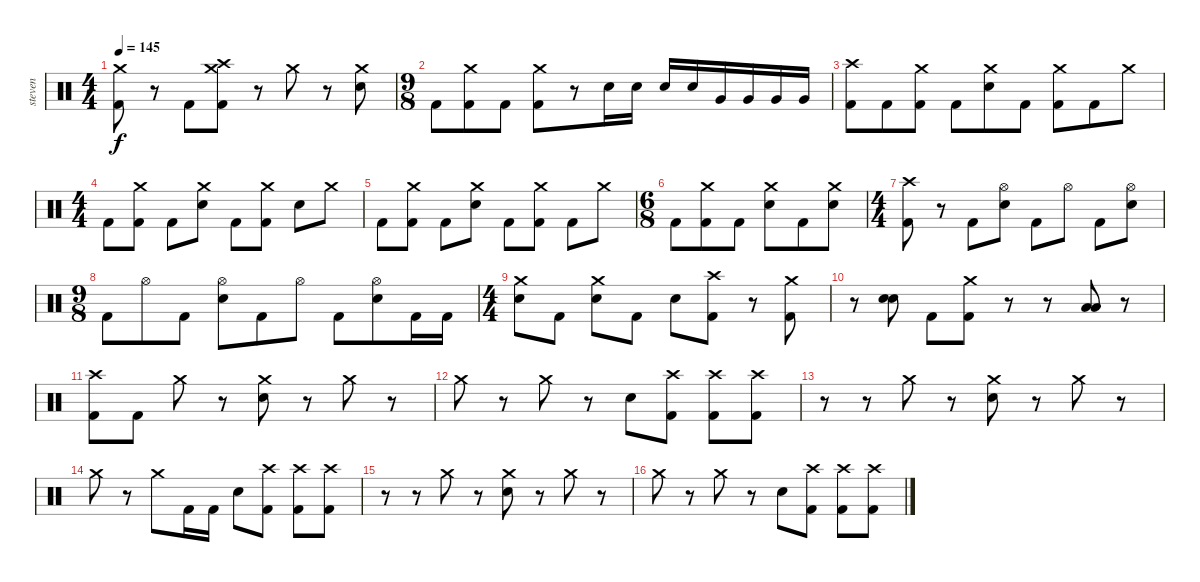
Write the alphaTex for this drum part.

\track ("steven" "steven") {instrument percussion}
\staff {score}
\articulation defaults
\ts (4 4)
\tempo 145
\clef neutral
\ks c
("Crash medium (hit)" "Kick (hit) 2").8{dy f} r.8 "Kick (hit) 2".8 ("Crash medium (hit)" "Crash high (hit)" "Kick (hit) 2").8 r.8 "Crash medium (hit)".8 r.8 ("Crash medium (hit)" "Electric Snare (hit)").8 |
\ts (9 8)
"Kick (hit) 2".8 ("Crash medium (hit)" "Kick (hit) 2").8 "Kick (hit) 2".8 ("Crash medium (hit)" "Kick (hit) 2").8 r.8 "Electric Snare (hit)".16 "Electric Snare (hit)".16 "Electric Snare (hit)".16 "Electric Snare (hit)".16 "Very Low Tom (hit)".16 "Very Low Tom (hit)".16 "Very Low Tom (hit)".16 "Very Low Tom (hit)".16 |
("Crash high (hit)" "Kick (hit) 2").8 "Kick (hit) 2".8 ("Crash medium (hit)" "Kick (hit) 2").8 "Kick (hit) 2".8 ("Crash medium (hit)" "Electric Snare (hit)").8 "Kick (hit) 2".8 ("Crash medium (hit)" "Kick (hit) 2").8 "Kick (hit) 2".8 "Crash medium (hit)".8 |
\ts (4 4)
"Kick (hit) 2".8 ("Crash medium (hit)" "Kick (hit) 2").8 "Kick (hit) 2".8 ("Crash medium (hit)" "Electric Snare (hit)").8 "Kick (hit) 2".8 ("Crash medium (hit)" "Kick (hit) 2").8 "Electric Snare (hit)".8 "Crash medium (hit)".8 |
"Kick (hit) 2".8 ("Crash medium (hit)" "Kick (hit) 2").8 "Kick (hit) 2".8 ("Crash medium (hit)" "Electric Snare (hit)").8 "Kick (hit) 2".8 ("Crash medium (hit)" "Kick (hit) 2").8 "Kick (hit) 2".8 "Crash medium (hit)".8 |
\ts (6 8)
"Kick (hit) 2".8 ("Crash medium (hit)" "Kick (hit) 2").8 "Kick (hit) 2".8 ("Crash medium (hit)" "Electric Snare (hit)").8 "Kick (hit) 2".8 ("Crash medium (hit)" "Electric Snare (hit)").8 |
\ts (4 4)
("Crash high (hit)" "Kick (hit) 2").8 r.8 "Kick (hit) 2".8 ("Hi-Hat (open)" "Electric Snare (hit)").8 "Kick (hit) 2".8 "Hi-Hat (open)".8 "Kick (hit) 2".8 ("Hi-Hat (open)" "Electric Snare (hit)").8 |
\ts (9 8)
"Kick (hit) 2".8 "Hi-Hat (open)".8 "Kick (hit) 2".8 ("Hi-Hat (open)" "Electric Snare (hit)").8 "Kick (hit) 2".8 "Hi-Hat (open)".8 "Kick (hit) 2".8 ("Hi-Hat (open)" "Electric Snare (hit)").8 "Kick (hit) 2".16 "Kick (hit) 2".16 |
\ts (4 4)
("Crash medium (hit)" "Electric Snare (hit)").8 "Kick (hit) 2".8 ("Crash medium (hit)" "Electric Snare (hit)").8 "Kick (hit) 2".8 "Electric Snare (hit)".8 ("Crash high (hit)" "Kick (hit) 2").8 r.8 ("Crash medium (hit)" "Kick (hit) 2").8 |
r.8 ("Electric Snare (hit)" "Electric Snare (hit)").8 "Kick (hit) 2".8 ("Crash medium (hit)" "Kick (hit) 2").8 r.8 r.8 ("Low Floor Tom (hit)" "Low Floor Tom (hit)").8 r.8 |
("Crash high (hit)" "Kick (hit) 2").8 "Kick (hit) 2".8 "Crash medium (hit)".8 r.8 ("Crash medium (hit)" "Electric Snare (hit)").8 r.8 "Crash medium (hit)".8 r.8 |
"Crash medium (hit)".8 r.8 "Crash medium (hit)".8 r.8 "Electric Snare (hit)".8 ("Crash high (hit)" "Kick (hit) 2").8 ("Crash high (hit)" "Kick (hit) 2").8 ("Crash high (hit)" "Kick (hit) 2").8 |
r.8 r.8 "Crash medium (hit)".8 r.8 ("Crash medium (hit)" "Electric Snare (hit)").8 r.8 "Crash medium (hit)".8 r.8 |
"Crash medium (hit)".8 r.8 "Crash medium (hit)".8 "Kick (hit) 2".16 "Kick (hit) 2".16 "Electric Snare (hit)".8 ("Crash high (hit)" "Kick (hit) 2").8 ("Crash high (hit)" "Kick (hit) 2").8 ("Crash high (hit)" "Kick (hit) 2").8 |
r.8 r.8 "Crash medium (hit)".8 r.8 ("Crash medium (hit)" "Electric Snare (hit)").8 r.8 "Crash medium (hit)".8 r.8 |
"Crash medium (hit)".8 r.8 "Crash medium (hit)".8 r.8 "Electric Snare (hit)".8 ("Crash high (hit)" "Kick (hit) 2").8 ("Crash high (hit)" "Kick (hit) 2").8 ("Crash high (hit)" "Kick (hit) 2").8
